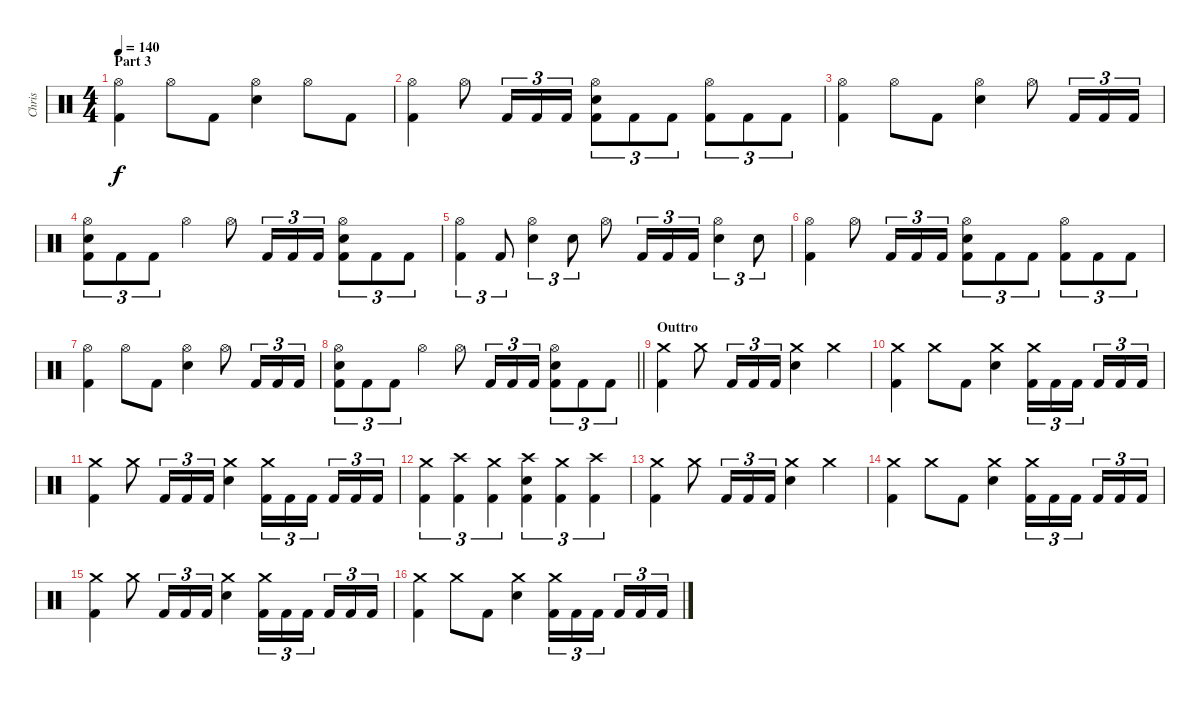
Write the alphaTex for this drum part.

\track ("Chris" "Chris") {instrument percussion}
\staff {score}
\articulation defaults
\ts (4 4)
\section ("" "Part 3")
\tempo 140
\clef neutral
\ks c
("Hi-Hat (open)" "Kick (hit) 2").4{dy f} "Hi-Hat (open)".8 "Kick (hit) 2".8 ("Snare (hit) 2" "Hi-Hat (open)").4 "Hi-Hat (open)".8 "Kick (hit) 2".8 |
("Hi-Hat (open)" "Kick (hit) 2").4 "Hi-Hat (open)".8 "Kick (hit) 2".16{tu (3 2)} "Kick (hit) 2".16{tu (3 2)} "Kick (hit) 2".16{tu (3 2)} ("Snare (hit) 2" "Hi-Hat (open)" "Kick (hit) 2").8{tu (3 2)} "Kick (hit) 2".8{tu (3 2)} "Kick (hit) 2".8{tu (3 2)} ("Hi-Hat (open)" "Kick (hit) 2").8{tu (3 2)} "Kick (hit) 2".8{tu (3 2)} "Kick (hit) 2".8{tu (3 2)} |
("Hi-Hat (open)" "Kick (hit) 2").4 "Hi-Hat (open)".8 "Kick (hit) 2".8 ("Snare (hit) 2" "Hi-Hat (open)").4 "Hi-Hat (open)".8 "Kick (hit) 2".16{tu (3 2)} "Kick (hit) 2".16{tu (3 2)} "Kick (hit) 2".16{tu (3 2)} |
("Snare (hit) 2" "Hi-Hat (open)" "Kick (hit) 2").8{tu (3 2)} "Kick (hit) 2".8{tu (3 2)} "Kick (hit) 2".8{tu (3 2)} "Hi-Hat (open)".4 "Hi-Hat (open)".8 "Kick (hit) 2".16{tu (3 2)} "Kick (hit) 2".16{tu (3 2)} "Kick (hit) 2".16{tu (3 2)} ("Snare (hit) 2" "Hi-Hat (open)" "Kick (hit) 2").8{tu (3 2)} "Kick (hit) 2".8{tu (3 2)} "Kick (hit) 2".8{tu (3 2)} |
("Hi-Hat (open)" "Kick (hit) 2").4{tu (3 2)} "Kick (hit) 2".8{tu (3 2)} ("Snare (hit) 2" "Hi-Hat (open)").4{tu (3 2)} "Snare (hit) 2".8{tu (3 2)} "Hi-Hat (open)".8 "Kick (hit) 2".16{tu (3 2)} "Kick (hit) 2".16{tu (3 2)} "Kick (hit) 2".16{tu (3 2)} ("Snare (hit) 2" "Hi-Hat (open)").4{tu (3 2)} "Snare (hit) 2".8{tu (3 2)} |
("Hi-Hat (open)" "Kick (hit) 2").4 "Hi-Hat (open)".8 "Kick (hit) 2".16{tu (3 2)} "Kick (hit) 2".16{tu (3 2)} "Kick (hit) 2".16{tu (3 2)} ("Snare (hit) 2" "Hi-Hat (open)" "Kick (hit) 2").8{tu (3 2)} "Kick (hit) 2".8{tu (3 2)} "Kick (hit) 2".8{tu (3 2)} ("Hi-Hat (open)" "Kick (hit) 2").8{tu (3 2)} "Kick (hit) 2".8{tu (3 2)} "Kick (hit) 2".8{tu (3 2)} |
("Hi-Hat (open)" "Kick (hit) 2").4 "Hi-Hat (open)".8 "Kick (hit) 2".8 ("Snare (hit) 2" "Hi-Hat (open)").4 "Hi-Hat (open)".8 "Kick (hit) 2".16{tu (3 2)} "Kick (hit) 2".16{tu (3 2)} "Kick (hit) 2".16{tu (3 2)} |
\barLineRight lightlight
("Snare (hit) 2" "Hi-Hat (open)" "Kick (hit) 2").8{tu (3 2)} "Kick (hit) 2".8{tu (3 2)} "Kick (hit) 2".8{tu (3 2)} "Hi-Hat (open)".4 "Hi-Hat (open)".8 "Kick (hit) 2".16{tu (3 2)} "Kick (hit) 2".16{tu (3 2)} "Kick (hit) 2".16{tu (3 2)} ("Snare (hit) 2" "Hi-Hat (open)" "Kick (hit) 2").8{tu (3 2)} "Kick (hit) 2".8{tu (3 2)} "Kick (hit) 2".8{tu (3 2)} |
\section ("" "Outtro")
("Crash medium (hit)" "Kick (hit) 2").4 "Crash medium (hit)".8 "Kick (hit) 2".16{tu (3 2)} "Kick (hit) 2".16{tu (3 2)} "Kick (hit) 2".16{tu (3 2)} ("Crash medium (hit)" "Snare (hit) 2").4 "Crash medium (hit)".4 |
("Crash medium (hit)" "Kick (hit) 2").4 "Crash medium (hit)".8 "Kick (hit) 2".8 ("Crash medium (hit)" "Snare (hit) 2").4 ("Crash medium (hit)" "Kick (hit) 2").16{tu (3 2)} "Kick (hit) 2".16{tu (3 2)} "Kick (hit) 2".16{tu (3 2) beam splitsecondary} "Kick (hit) 2".16{tu (3 2)} "Kick (hit) 2".16{tu (3 2)} "Kick (hit) 2".16{tu (3 2)} |
("Crash medium (hit)" "Kick (hit) 2").4 "Crash medium (hit)".8 "Kick (hit) 2".16{tu (3 2)} "Kick (hit) 2".16{tu (3 2)} "Kick (hit) 2".16{tu (3 2)} ("Crash medium (hit)" "Snare (hit) 2").4 ("Crash medium (hit)" "Kick (hit) 2").16{tu (3 2)} "Kick (hit) 2".16{tu (3 2)} "Kick (hit) 2".16{tu (3 2) beam splitsecondary} "Kick (hit) 2".16{tu (3 2)} "Kick (hit) 2".16{tu (3 2)} "Kick (hit) 2".16{tu (3 2)} |
("Crash medium (hit)" "Kick (hit) 2").4{tu (3 2)} ("Crash high (hit)" "Kick (hit) 2").4{tu (3 2)} ("Crash medium (hit)" "Kick (hit) 2").4{tu (3 2)} ("Crash high (hit)" "Snare (hit) 2" "Kick (hit) 2").4{tu (3 2)} ("Crash medium (hit)" "Kick (hit) 2").4{tu (3 2)} ("Crash high (hit)" "Kick (hit) 2").4{tu (3 2)} |
("Crash medium (hit)" "Kick (hit) 2").4 "Crash medium (hit)".8 "Kick (hit) 2".16{tu (3 2)} "Kick (hit) 2".16{tu (3 2)} "Kick (hit) 2".16{tu (3 2)} ("Crash medium (hit)" "Snare (hit) 2").4 "Crash medium (hit)".4 |
("Crash medium (hit)" "Kick (hit) 2").4 "Crash medium (hit)".8 "Kick (hit) 2".8 ("Crash medium (hit)" "Snare (hit) 2").4 ("Crash medium (hit)" "Kick (hit) 2").16{tu (3 2)} "Kick (hit) 2".16{tu (3 2)} "Kick (hit) 2".16{tu (3 2) beam splitsecondary} "Kick (hit) 2".16{tu (3 2)} "Kick (hit) 2".16{tu (3 2)} "Kick (hit) 2".16{tu (3 2)} |
("Crash medium (hit)" "Kick (hit) 2").4 "Crash medium (hit)".8 "Kick (hit) 2".16{tu (3 2)} "Kick (hit) 2".16{tu (3 2)} "Kick (hit) 2".16{tu (3 2)} ("Crash medium (hit)" "Snare (hit) 2").4 ("Crash medium (hit)" "Kick (hit) 2").16{tu (3 2)} "Kick (hit) 2".16{tu (3 2)} "Kick (hit) 2".16{tu (3 2) beam splitsecondary} "Kick (hit) 2".16{tu (3 2)} "Kick (hit) 2".16{tu (3 2)} "Kick (hit) 2".16{tu (3 2)} |
("Crash medium (hit)" "Kick (hit) 2").4 "Crash medium (hit)".8 "Kick (hit) 2".8 ("Crash medium (hit)" "Snare (hit) 2").4 ("Crash medium (hit)" "Kick (hit) 2").16{tu (3 2)} "Kick (hit) 2".16{tu (3 2)} "Kick (hit) 2".16{tu (3 2) beam splitsecondary} "Kick (hit) 2".16{tu (3 2)} "Kick (hit) 2".16{tu (3 2)} "Kick (hit) 2".16{tu (3 2)}
